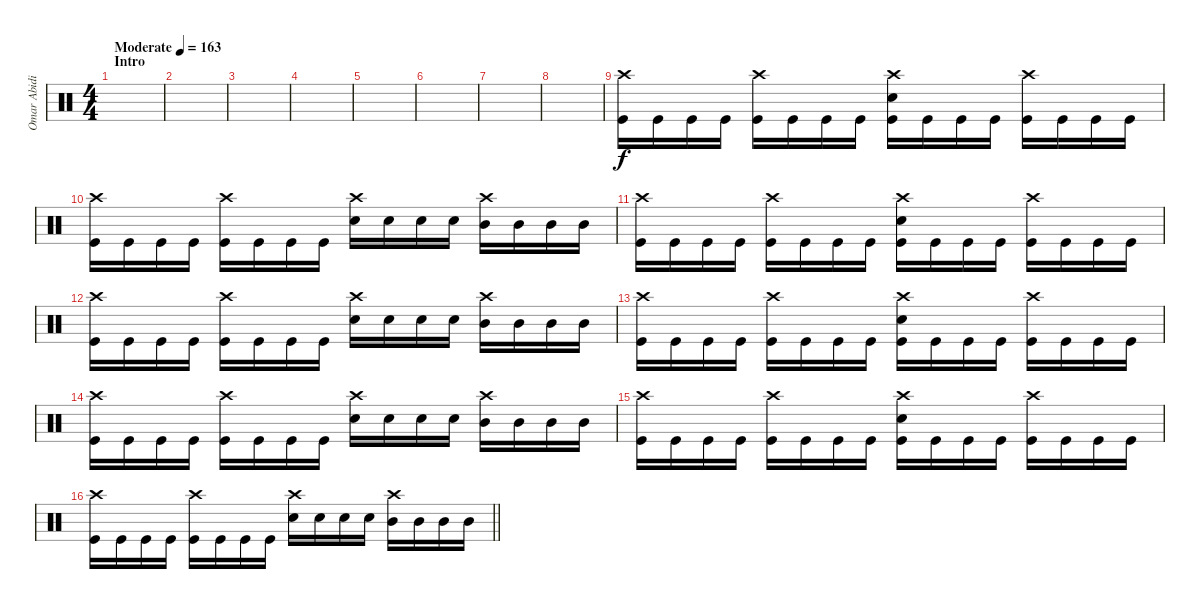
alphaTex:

\track ("Omar Abidi" "Omar Abidi") {instrument percussion}
\staff {score}
\articulation defaults
\ts (4 4)
\section ("" "Intro")
\tempo (163 "Moderate")
\clef neutral
\ks c
|
|
|
|
|
|
|
|
("Crash high (hit)" "Kick (hit)").16 "Kick (hit)".16 "Kick (hit)".16 "Kick (hit)".16 ("Crash high (hit)" "Kick (hit)").16 "Kick (hit)".16 "Kick (hit)".16 "Kick (hit)".16 ("Crash high (hit)" "Snare (hit) 2" "Kick (hit)").16 "Kick (hit)".16 "Kick (hit)".16 "Kick (hit)".16 ("Crash high (hit)" "Kick (hit)").16 "Kick (hit)".16 "Kick (hit)".16 "Kick (hit)".16 |
("Crash high (hit)" "Kick (hit)").16 "Kick (hit)".16 "Kick (hit)".16 "Kick (hit)".16 ("Crash high (hit)" "Kick (hit)").16 "Kick (hit)".16 "Kick (hit)".16 "Kick (hit)".16 ("Crash high (hit)" "Snare (hit) 2").16 "Snare (hit) 2".16 "Snare (hit) 2".16 "Snare (hit) 2".16 ("Crash high (hit)" "Mid Tom (hit)").16 "Mid Tom (hit)".16 "Mid Tom (hit)".16 "Mid Tom (hit)".16 |
("Crash high (hit)" "Kick (hit)").16 "Kick (hit)".16 "Kick (hit)".16 "Kick (hit)".16 ("Crash high (hit)" "Kick (hit)").16 "Kick (hit)".16 "Kick (hit)".16 "Kick (hit)".16 ("Crash high (hit)" "Snare (hit) 2" "Kick (hit)").16 "Kick (hit)".16 "Kick (hit)".16 "Kick (hit)".16 ("Crash high (hit)" "Kick (hit)").16 "Kick (hit)".16 "Kick (hit)".16 "Kick (hit)".16 |
("Crash high (hit)" "Kick (hit)").16 "Kick (hit)".16 "Kick (hit)".16 "Kick (hit)".16 ("Crash high (hit)" "Kick (hit)").16 "Kick (hit)".16 "Kick (hit)".16 "Kick (hit)".16 ("Crash high (hit)" "Snare (hit) 2").16 "Snare (hit) 2".16 "Snare (hit) 2".16 "Snare (hit) 2".16 ("Crash high (hit)" "Mid Tom (hit)").16 "Mid Tom (hit)".16 "Mid Tom (hit)".16 "Mid Tom (hit)".16 |
("Crash high (hit)" "Kick (hit)").16 "Kick (hit)".16 "Kick (hit)".16 "Kick (hit)".16 ("Crash high (hit)" "Kick (hit)").16 "Kick (hit)".16 "Kick (hit)".16 "Kick (hit)".16 ("Crash high (hit)" "Snare (hit) 2" "Kick (hit)").16 "Kick (hit)".16 "Kick (hit)".16 "Kick (hit)".16 ("Crash high (hit)" "Kick (hit)").16 "Kick (hit)".16 "Kick (hit)".16 "Kick (hit)".16 |
("Crash high (hit)" "Kick (hit)").16 "Kick (hit)".16 "Kick (hit)".16 "Kick (hit)".16 ("Crash high (hit)" "Kick (hit)").16 "Kick (hit)".16 "Kick (hit)".16 "Kick (hit)".16 ("Crash high (hit)" "Snare (hit) 2").16 "Snare (hit) 2".16 "Snare (hit) 2".16 "Snare (hit) 2".16 ("Crash high (hit)" "Mid Tom (hit)").16 "Mid Tom (hit)".16 "Mid Tom (hit)".16 "Mid Tom (hit)".16 |
("Crash high (hit)" "Kick (hit)").16 "Kick (hit)".16 "Kick (hit)".16 "Kick (hit)".16 ("Crash high (hit)" "Kick (hit)").16 "Kick (hit)".16 "Kick (hit)".16 "Kick (hit)".16 ("Crash high (hit)" "Snare (hit) 2" "Kick (hit)").16 "Kick (hit)".16 "Kick (hit)".16 "Kick (hit)".16 ("Crash high (hit)" "Kick (hit)").16 "Kick (hit)".16 "Kick (hit)".16 "Kick (hit)".16 |
\barLineRight lightlight
("Crash high (hit)" "Kick (hit)").16 "Kick (hit)".16 "Kick (hit)".16 "Kick (hit)".16 ("Crash high (hit)" "Kick (hit)").16 "Kick (hit)".16 "Kick (hit)".16 "Kick (hit)".16 ("Crash high (hit)" "Snare (hit) 2").16 "Snare (hit) 2".16 "Snare (hit) 2".16 "Snare (hit) 2".16 ("Crash high (hit)" "Mid Tom (hit)").16 "Mid Tom (hit)".16 "Mid Tom (hit)".16 "Mid Tom (hit)".16
